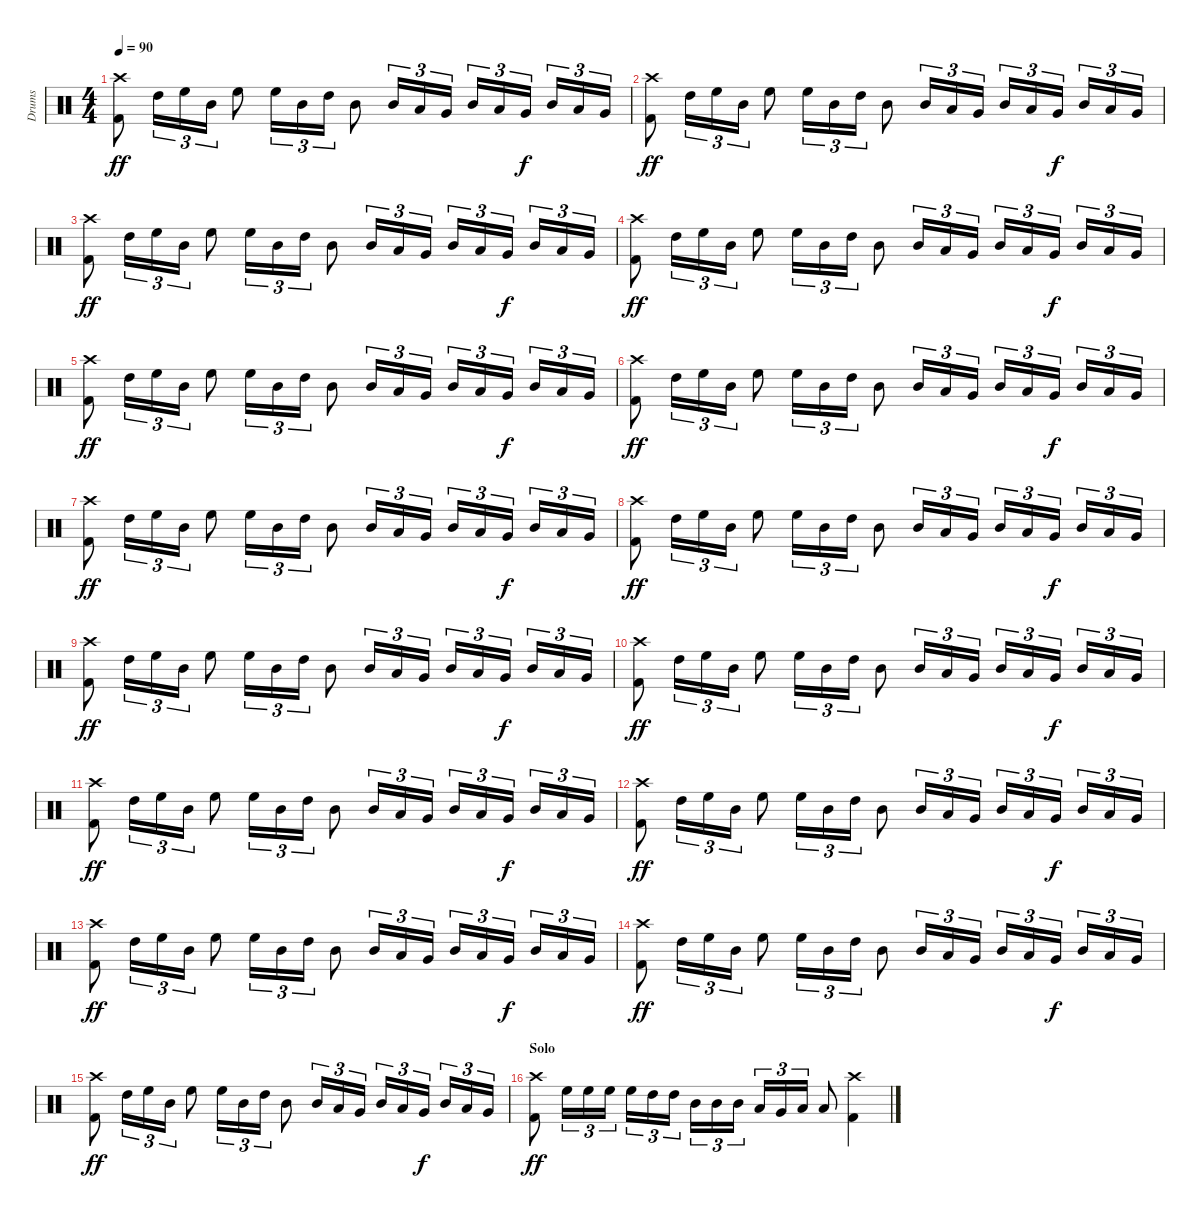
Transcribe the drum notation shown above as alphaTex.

\track ("Drums     " "Drums     ") {instrument percussion}
\staff {score}
\articulation defaults
\ts (4 4)
\tempo 90
\clef neutral
\ks c
("Kick (hit) 2" "Crash high (hit)").8{dy ff} "High Tom (hit)".16{tu (3 2)} "High Floor Tom (hit)".16{tu (3 2)} "Mid Tom (hit)".16{tu (3 2)} "High Floor Tom (hit)".8 "High Floor Tom (hit)".16{tu (3 2)} "Mid Tom (hit)".16{tu (3 2)} "High Tom (hit)".16{tu (3 2)} "Mid Tom (hit)".8 "Mid Tom (hit)".16{tu (3 2)} "Low Tom (hit)".16{tu (3 2)} "Very Low Tom (hit)".16{tu (3 2)} "Mid Tom (hit)".16{tu (3 2)} "Low Tom (hit)".16{tu (3 2)} "Very Low Tom (hit)".16{tu (3 2) dy f} "Mid Tom (hit)".16{tu (3 2)} "Low Tom (hit)".16{tu (3 2)} "Very Low Tom (hit)".16{tu (3 2)} |
("Kick (hit) 2" "Crash high (hit)").8{dy ff} "High Tom (hit)".16{tu (3 2)} "High Floor Tom (hit)".16{tu (3 2)} "Mid Tom (hit)".16{tu (3 2)} "High Floor Tom (hit)".8 "High Floor Tom (hit)".16{tu (3 2)} "Mid Tom (hit)".16{tu (3 2)} "High Tom (hit)".16{tu (3 2)} "Mid Tom (hit)".8 "Mid Tom (hit)".16{tu (3 2)} "Low Tom (hit)".16{tu (3 2)} "Very Low Tom (hit)".16{tu (3 2)} "Mid Tom (hit)".16{tu (3 2)} "Low Tom (hit)".16{tu (3 2)} "Very Low Tom (hit)".16{tu (3 2) dy f} "Mid Tom (hit)".16{tu (3 2)} "Low Tom (hit)".16{tu (3 2)} "Very Low Tom (hit)".16{tu (3 2)} |
("Kick (hit) 2" "Crash high (hit)").8{dy ff} "High Tom (hit)".16{tu (3 2)} "High Floor Tom (hit)".16{tu (3 2)} "Mid Tom (hit)".16{tu (3 2)} "High Floor Tom (hit)".8 "High Floor Tom (hit)".16{tu (3 2)} "Mid Tom (hit)".16{tu (3 2)} "High Tom (hit)".16{tu (3 2)} "Mid Tom (hit)".8 "Mid Tom (hit)".16{tu (3 2)} "Low Tom (hit)".16{tu (3 2)} "Very Low Tom (hit)".16{tu (3 2)} "Mid Tom (hit)".16{tu (3 2)} "Low Tom (hit)".16{tu (3 2)} "Very Low Tom (hit)".16{tu (3 2) dy f} "Mid Tom (hit)".16{tu (3 2)} "Low Tom (hit)".16{tu (3 2)} "Very Low Tom (hit)".16{tu (3 2)} |
("Kick (hit) 2" "Crash high (hit)").8{dy ff} "High Tom (hit)".16{tu (3 2)} "High Floor Tom (hit)".16{tu (3 2)} "Mid Tom (hit)".16{tu (3 2)} "High Floor Tom (hit)".8 "High Floor Tom (hit)".16{tu (3 2)} "Mid Tom (hit)".16{tu (3 2)} "High Tom (hit)".16{tu (3 2)} "Mid Tom (hit)".8 "Mid Tom (hit)".16{tu (3 2)} "Low Tom (hit)".16{tu (3 2)} "Very Low Tom (hit)".16{tu (3 2)} "Mid Tom (hit)".16{tu (3 2)} "Low Tom (hit)".16{tu (3 2)} "Very Low Tom (hit)".16{tu (3 2) dy f} "Mid Tom (hit)".16{tu (3 2)} "Low Tom (hit)".16{tu (3 2)} "Very Low Tom (hit)".16{tu (3 2)} |
("Kick (hit) 2" "Crash high (hit)").8{dy ff} "High Tom (hit)".16{tu (3 2)} "High Floor Tom (hit)".16{tu (3 2)} "Mid Tom (hit)".16{tu (3 2)} "High Floor Tom (hit)".8 "High Floor Tom (hit)".16{tu (3 2)} "Mid Tom (hit)".16{tu (3 2)} "High Tom (hit)".16{tu (3 2)} "Mid Tom (hit)".8 "Mid Tom (hit)".16{tu (3 2)} "Low Tom (hit)".16{tu (3 2)} "Very Low Tom (hit)".16{tu (3 2)} "Mid Tom (hit)".16{tu (3 2)} "Low Tom (hit)".16{tu (3 2)} "Very Low Tom (hit)".16{tu (3 2) dy f} "Mid Tom (hit)".16{tu (3 2)} "Low Tom (hit)".16{tu (3 2)} "Very Low Tom (hit)".16{tu (3 2)} |
("Kick (hit) 2" "Crash high (hit)").8{dy ff} "High Tom (hit)".16{tu (3 2)} "High Floor Tom (hit)".16{tu (3 2)} "Mid Tom (hit)".16{tu (3 2)} "High Floor Tom (hit)".8 "High Floor Tom (hit)".16{tu (3 2)} "Mid Tom (hit)".16{tu (3 2)} "High Tom (hit)".16{tu (3 2)} "Mid Tom (hit)".8 "Mid Tom (hit)".16{tu (3 2)} "Low Tom (hit)".16{tu (3 2)} "Very Low Tom (hit)".16{tu (3 2)} "Mid Tom (hit)".16{tu (3 2)} "Low Tom (hit)".16{tu (3 2)} "Very Low Tom (hit)".16{tu (3 2) dy f} "Mid Tom (hit)".16{tu (3 2)} "Low Tom (hit)".16{tu (3 2)} "Very Low Tom (hit)".16{tu (3 2)} |
("Kick (hit) 2" "Crash high (hit)").8{dy ff} "High Tom (hit)".16{tu (3 2)} "High Floor Tom (hit)".16{tu (3 2)} "Mid Tom (hit)".16{tu (3 2)} "High Floor Tom (hit)".8 "High Floor Tom (hit)".16{tu (3 2)} "Mid Tom (hit)".16{tu (3 2)} "High Tom (hit)".16{tu (3 2)} "Mid Tom (hit)".8 "Mid Tom (hit)".16{tu (3 2)} "Low Tom (hit)".16{tu (3 2)} "Very Low Tom (hit)".16{tu (3 2)} "Mid Tom (hit)".16{tu (3 2)} "Low Tom (hit)".16{tu (3 2)} "Very Low Tom (hit)".16{tu (3 2) dy f} "Mid Tom (hit)".16{tu (3 2)} "Low Tom (hit)".16{tu (3 2)} "Very Low Tom (hit)".16{tu (3 2)} |
("Kick (hit) 2" "Crash high (hit)").8{dy ff} "High Tom (hit)".16{tu (3 2)} "High Floor Tom (hit)".16{tu (3 2)} "Mid Tom (hit)".16{tu (3 2)} "High Floor Tom (hit)".8 "High Floor Tom (hit)".16{tu (3 2)} "Mid Tom (hit)".16{tu (3 2)} "High Tom (hit)".16{tu (3 2)} "Mid Tom (hit)".8 "Mid Tom (hit)".16{tu (3 2)} "Low Tom (hit)".16{tu (3 2)} "Very Low Tom (hit)".16{tu (3 2)} "Mid Tom (hit)".16{tu (3 2)} "Low Tom (hit)".16{tu (3 2)} "Very Low Tom (hit)".16{tu (3 2) dy f} "Mid Tom (hit)".16{tu (3 2)} "Low Tom (hit)".16{tu (3 2)} "Very Low Tom (hit)".16{tu (3 2)} |
("Kick (hit) 2" "Crash high (hit)").8{dy ff} "High Tom (hit)".16{tu (3 2)} "High Floor Tom (hit)".16{tu (3 2)} "Mid Tom (hit)".16{tu (3 2)} "High Floor Tom (hit)".8 "High Floor Tom (hit)".16{tu (3 2)} "Mid Tom (hit)".16{tu (3 2)} "High Tom (hit)".16{tu (3 2)} "Mid Tom (hit)".8 "Mid Tom (hit)".16{tu (3 2)} "Low Tom (hit)".16{tu (3 2)} "Very Low Tom (hit)".16{tu (3 2)} "Mid Tom (hit)".16{tu (3 2)} "Low Tom (hit)".16{tu (3 2)} "Very Low Tom (hit)".16{tu (3 2) dy f} "Mid Tom (hit)".16{tu (3 2)} "Low Tom (hit)".16{tu (3 2)} "Very Low Tom (hit)".16{tu (3 2)} |
("Kick (hit) 2" "Crash high (hit)").8{dy ff} "High Tom (hit)".16{tu (3 2)} "High Floor Tom (hit)".16{tu (3 2)} "Mid Tom (hit)".16{tu (3 2)} "High Floor Tom (hit)".8 "High Floor Tom (hit)".16{tu (3 2)} "Mid Tom (hit)".16{tu (3 2)} "High Tom (hit)".16{tu (3 2)} "Mid Tom (hit)".8 "Mid Tom (hit)".16{tu (3 2)} "Low Tom (hit)".16{tu (3 2)} "Very Low Tom (hit)".16{tu (3 2)} "Mid Tom (hit)".16{tu (3 2)} "Low Tom (hit)".16{tu (3 2)} "Very Low Tom (hit)".16{tu (3 2) dy f} "Mid Tom (hit)".16{tu (3 2)} "Low Tom (hit)".16{tu (3 2)} "Very Low Tom (hit)".16{tu (3 2)} |
("Kick (hit) 2" "Crash high (hit)").8{dy ff} "High Tom (hit)".16{tu (3 2)} "High Floor Tom (hit)".16{tu (3 2)} "Mid Tom (hit)".16{tu (3 2)} "High Floor Tom (hit)".8 "High Floor Tom (hit)".16{tu (3 2)} "Mid Tom (hit)".16{tu (3 2)} "High Tom (hit)".16{tu (3 2)} "Mid Tom (hit)".8 "Mid Tom (hit)".16{tu (3 2)} "Low Tom (hit)".16{tu (3 2)} "Very Low Tom (hit)".16{tu (3 2)} "Mid Tom (hit)".16{tu (3 2)} "Low Tom (hit)".16{tu (3 2)} "Very Low Tom (hit)".16{tu (3 2) dy f} "Mid Tom (hit)".16{tu (3 2)} "Low Tom (hit)".16{tu (3 2)} "Very Low Tom (hit)".16{tu (3 2)} |
("Kick (hit) 2" "Crash high (hit)").8{dy ff} "High Tom (hit)".16{tu (3 2)} "High Floor Tom (hit)".16{tu (3 2)} "Mid Tom (hit)".16{tu (3 2)} "High Floor Tom (hit)".8 "High Floor Tom (hit)".16{tu (3 2)} "Mid Tom (hit)".16{tu (3 2)} "High Tom (hit)".16{tu (3 2)} "Mid Tom (hit)".8 "Mid Tom (hit)".16{tu (3 2)} "Low Tom (hit)".16{tu (3 2)} "Very Low Tom (hit)".16{tu (3 2)} "Mid Tom (hit)".16{tu (3 2)} "Low Tom (hit)".16{tu (3 2)} "Very Low Tom (hit)".16{tu (3 2) dy f} "Mid Tom (hit)".16{tu (3 2)} "Low Tom (hit)".16{tu (3 2)} "Very Low Tom (hit)".16{tu (3 2)} |
("Kick (hit) 2" "Crash high (hit)").8{dy ff} "High Tom (hit)".16{tu (3 2)} "High Floor Tom (hit)".16{tu (3 2)} "Mid Tom (hit)".16{tu (3 2)} "High Floor Tom (hit)".8 "High Floor Tom (hit)".16{tu (3 2)} "Mid Tom (hit)".16{tu (3 2)} "High Tom (hit)".16{tu (3 2)} "Mid Tom (hit)".8 "Mid Tom (hit)".16{tu (3 2)} "Low Tom (hit)".16{tu (3 2)} "Very Low Tom (hit)".16{tu (3 2)} "Mid Tom (hit)".16{tu (3 2)} "Low Tom (hit)".16{tu (3 2)} "Very Low Tom (hit)".16{tu (3 2) dy f} "Mid Tom (hit)".16{tu (3 2)} "Low Tom (hit)".16{tu (3 2)} "Very Low Tom (hit)".16{tu (3 2)} |
("Kick (hit) 2" "Crash high (hit)").8{dy ff} "High Tom (hit)".16{tu (3 2)} "High Floor Tom (hit)".16{tu (3 2)} "Mid Tom (hit)".16{tu (3 2)} "High Floor Tom (hit)".8 "High Floor Tom (hit)".16{tu (3 2)} "Mid Tom (hit)".16{tu (3 2)} "High Tom (hit)".16{tu (3 2)} "Mid Tom (hit)".8 "Mid Tom (hit)".16{tu (3 2)} "Low Tom (hit)".16{tu (3 2)} "Very Low Tom (hit)".16{tu (3 2)} "Mid Tom (hit)".16{tu (3 2)} "Low Tom (hit)".16{tu (3 2)} "Very Low Tom (hit)".16{tu (3 2) dy f} "Mid Tom (hit)".16{tu (3 2)} "Low Tom (hit)".16{tu (3 2)} "Very Low Tom (hit)".16{tu (3 2)} |
("Kick (hit) 2" "Crash high (hit)").8{dy ff} "High Tom (hit)".16{tu (3 2)} "High Floor Tom (hit)".16{tu (3 2)} "Mid Tom (hit)".16{tu (3 2)} "High Floor Tom (hit)".8 "High Floor Tom (hit)".16{tu (3 2)} "Mid Tom (hit)".16{tu (3 2)} "High Tom (hit)".16{tu (3 2)} "Mid Tom (hit)".8 "Mid Tom (hit)".16{tu (3 2)} "Low Tom (hit)".16{tu (3 2)} "Very Low Tom (hit)".16{tu (3 2)} "Mid Tom (hit)".16{tu (3 2)} "Low Tom (hit)".16{tu (3 2)} "Very Low Tom (hit)".16{tu (3 2) dy f} "Mid Tom (hit)".16{tu (3 2)} "Low Tom (hit)".16{tu (3 2)} "Very Low Tom (hit)".16{tu (3 2)} |
\section ("" "Solo")
("Kick (hit) 2" "Crash high (hit)").8{dy ff} "High Floor Tom (hit)".16{tu (3 2)} "High Floor Tom (hit)".16{tu (3 2)} "High Floor Tom (hit)".16{tu (3 2)} "High Floor Tom (hit)".16{tu (3 2)} "High Tom (hit)".16{tu (3 2)} "High Tom (hit)".16{tu (3 2)} "Mid Tom (hit)".16{tu (3 2)} "Mid Tom (hit)".16{tu (3 2)} "Mid Tom (hit)".16{tu (3 2)} "Low Tom (hit)".16{tu (3 2)} "Very Low Tom (hit)".16{tu (3 2)} "Low Floor Tom (hit)".16{tu (3 2)} "Low Floor Tom (hit)".8 ("Kick (hit) 2" "Crash high (hit)").4
